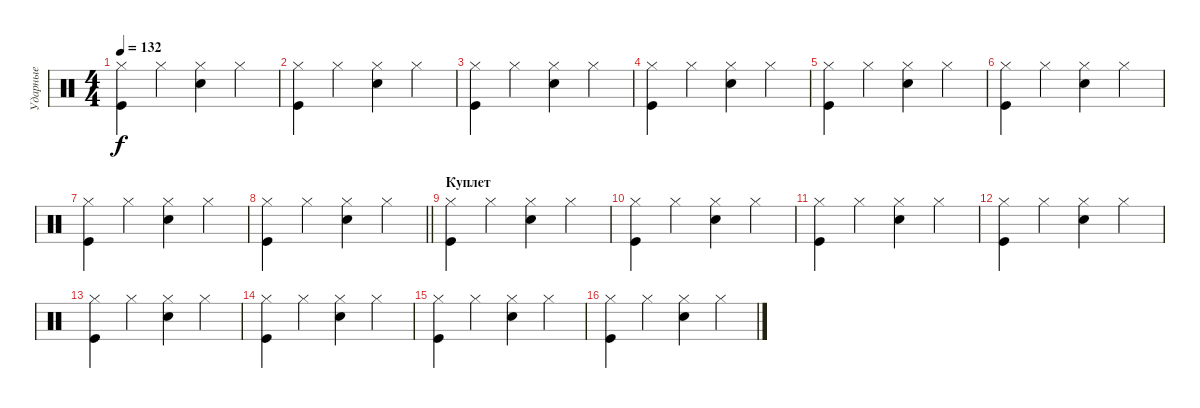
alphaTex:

\track ("Ударные" "Ударные") {instrument percussion}
\staff {score}
\articulation defaults
\ts (4 4)
\tempo 132
\clef neutral
\ks c
("Hi-Hat (closed)" "Kick (hit)").4{dy f} "Hi-Hat (closed)".4 ("Hi-Hat (closed)" "Snare (hit) 2").4 "Hi-Hat (closed)".4 |
("Hi-Hat (closed)" "Kick (hit)").4 "Hi-Hat (closed)".4 ("Hi-Hat (closed)" "Snare (hit) 2").4 "Hi-Hat (closed)".4 |
("Hi-Hat (closed)" "Kick (hit)").4 "Hi-Hat (closed)".4 ("Hi-Hat (closed)" "Snare (hit) 2").4 "Hi-Hat (closed)".4 |
("Hi-Hat (closed)" "Kick (hit)").4 "Hi-Hat (closed)".4 ("Hi-Hat (closed)" "Snare (hit) 2").4 "Hi-Hat (closed)".4 |
("Hi-Hat (closed)" "Kick (hit)").4 "Hi-Hat (closed)".4 ("Hi-Hat (closed)" "Snare (hit) 2").4 "Hi-Hat (closed)".4 |
("Hi-Hat (closed)" "Kick (hit)").4 "Hi-Hat (closed)".4 ("Hi-Hat (closed)" "Snare (hit) 2").4 "Hi-Hat (closed)".4 |
("Hi-Hat (closed)" "Kick (hit)").4 "Hi-Hat (closed)".4 ("Hi-Hat (closed)" "Snare (hit) 2").4 "Hi-Hat (closed)".4 |
\barLineRight lightlight
("Hi-Hat (closed)" "Kick (hit)").4 "Hi-Hat (closed)".4 ("Hi-Hat (closed)" "Snare (hit) 2").4 "Hi-Hat (closed)".4 |
\section ("" "Куплет")
("Hi-Hat (closed)" "Kick (hit)").4 "Hi-Hat (closed)".4 ("Hi-Hat (closed)" "Snare (hit) 2").4 "Hi-Hat (closed)".4 |
("Hi-Hat (closed)" "Kick (hit)").4 "Hi-Hat (closed)".4 ("Hi-Hat (closed)" "Snare (hit) 2").4 "Hi-Hat (closed)".4 |
("Hi-Hat (closed)" "Kick (hit)").4 "Hi-Hat (closed)".4 ("Hi-Hat (closed)" "Snare (hit) 2").4 "Hi-Hat (closed)".4 |
("Hi-Hat (closed)" "Kick (hit)").4 "Hi-Hat (closed)".4 ("Hi-Hat (closed)" "Snare (hit) 2").4 "Hi-Hat (closed)".4 |
("Hi-Hat (closed)" "Kick (hit)").4 "Hi-Hat (closed)".4 ("Hi-Hat (closed)" "Snare (hit) 2").4 "Hi-Hat (closed)".4 |
("Hi-Hat (closed)" "Kick (hit)").4 "Hi-Hat (closed)".4 ("Hi-Hat (closed)" "Snare (hit) 2").4 "Hi-Hat (closed)".4 |
("Hi-Hat (closed)" "Kick (hit)").4 "Hi-Hat (closed)".4 ("Hi-Hat (closed)" "Snare (hit) 2").4 "Hi-Hat (closed)".4 |
("Hi-Hat (closed)" "Kick (hit)").4 "Hi-Hat (closed)".4 ("Hi-Hat (closed)" "Snare (hit) 2").4 "Hi-Hat (closed)".4
